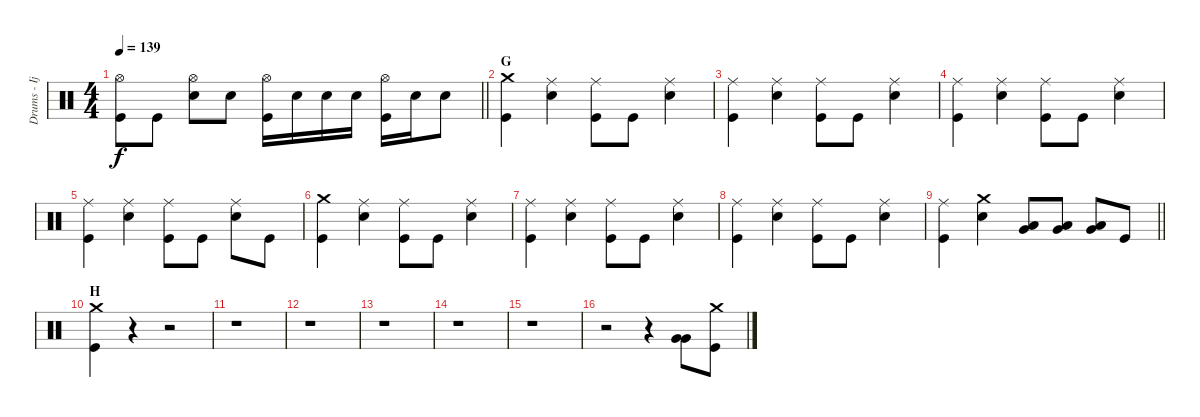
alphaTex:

\track ("Drums - Ijichi" "Drums - Ij") {instrument percussion}
\staff {score}
\articulation defaults
\ts (4 4)
\tempo 139
\clef neutral
\barLineRight lightlight
\ks c
("Hi-Hat (open)" "Kick (hit)").8{dy f} "Kick (hit)".8 ("Hi-Hat (open)" "Electric Snare (hit)").8 "Electric Snare (hit)".8 ("Hi-Hat (open)" "Kick (hit)").16 "Electric Snare (hit)".16 "Electric Snare (hit)".16 "Electric Snare (hit)".16 ("Hi-Hat (open)" "Kick (hit)").16 "Electric Snare (hit)".16 "Electric Snare (hit)".8 |
\section ("" "G")
("Crash medium (hit)" "Kick (hit)").4 ("Ride (middle)" "Electric Snare (hit)").4 ("Ride (middle)" "Kick (hit)").8 "Kick (hit)".8 ("Ride (middle)" "Electric Snare (hit)").4 |
("Ride (middle)" "Kick (hit)").4 ("Ride (middle)" "Electric Snare (hit)").4 ("Ride (middle)" "Kick (hit)").8 "Kick (hit)".8 ("Ride (middle)" "Electric Snare (hit)").4 |
("Ride (middle)" "Kick (hit)").4 ("Ride (middle)" "Electric Snare (hit)").4 ("Ride (middle)" "Kick (hit)").8 "Kick (hit)".8 ("Ride (middle)" "Electric Snare (hit)").4 |
("Ride (middle)" "Kick (hit)").4 ("Ride (middle)" "Electric Snare (hit)").4 ("Ride (middle)" "Kick (hit)").8 "Kick (hit)".8 ("Ride (middle)" "Electric Snare (hit)").8 "Kick (hit)".8 |
("Crash medium (hit)" "Kick (hit)").4 ("Ride (middle)" "Electric Snare (hit)").4 ("Ride (middle)" "Kick (hit)").8 "Kick (hit)".8 ("Ride (middle)" "Electric Snare (hit)").4 |
("Ride (middle)" "Kick (hit)").4 ("Ride (middle)" "Electric Snare (hit)").4 ("Ride (middle)" "Kick (hit)").8 "Kick (hit)".8 ("Ride (middle)" "Electric Snare (hit)").4 |
("Ride (middle)" "Kick (hit)").4 ("Ride (middle)" "Electric Snare (hit)").4 ("Ride (middle)" "Kick (hit)").8 "Kick (hit)".8 ("Ride (middle)" "Electric Snare (hit)").4 |
\barLineRight lightlight
("Ride (middle)" "Kick (hit)").4 ("Crash medium (hit)" "Electric Snare (hit)").4 ("Low Tom (hit)" "Very Low Tom (hit)").8 ("Low Tom (hit)" "Very Low Tom (hit)").8 ("Low Tom (hit)" "Very Low Tom (hit)").8 "Kick (hit)".8 |
\section ("" "H")
("Crash medium (hit)" "Kick (hit)").4 r.4 r.2 |
r.1 |
r.1 |
r.1 |
r.1 |
r.1 |
r.2 r.4 ("Very Low Tom (hit)" "Very Low Tom (hit)").8 ("Crash medium (hit)" "Kick (hit)").8
